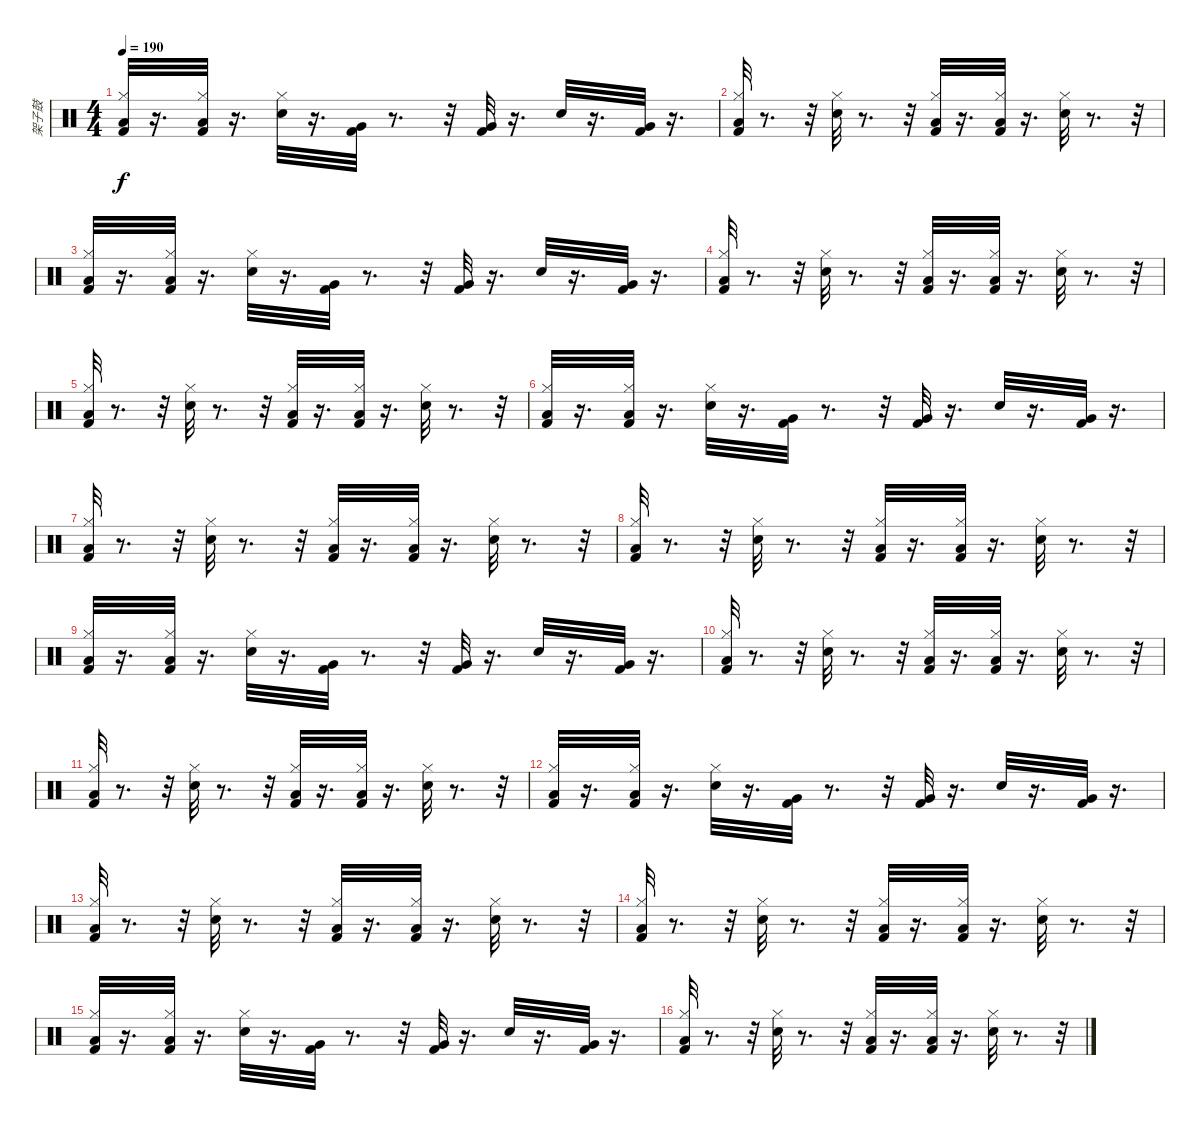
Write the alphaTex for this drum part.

\track ("架子鼓" "架子鼓") {instrument percussion}
\staff {score}
\articulation defaults
\ts (4 4)
\tempo 190
\clef neutral
\ks c
("Kick (hit) 2" "Hi-Hat (closed)" "Low Floor Tom (hit)").32{dy f} r.16{d} ("Kick (hit) 2" "Hi-Hat (closed)" "Low Floor Tom (hit)").32 r.16{d} ("Hi-Hat (closed)" "Electric Snare (hit)").32 r.16{d} ("Kick (hit) 2" "Very Low Tom (hit)").32 r.8{d} r.32 ("Kick (hit) 2" "Very Low Tom (hit)").32 r.16{d} "Snare (hit) 2".32 r.16{d} ("Kick (hit) 2" "Very Low Tom (hit)").32 r.16{d} |
("Kick (hit) 2" "Hi-Hat (closed)" "Low Floor Tom (hit)").32 r.8{d} r.32 ("Hi-Hat (closed)" "Electric Snare (hit)").32 r.8{d} r.32 ("Kick (hit) 2" "Hi-Hat (closed)" "Low Floor Tom (hit)").32 r.16{d} ("Kick (hit) 2" "Hi-Hat (closed)" "Low Floor Tom (hit)").32 r.16{d} ("Hi-Hat (closed)" "Electric Snare (hit)").32 r.8{d} r.32 |
("Kick (hit) 2" "Hi-Hat (closed)" "Low Floor Tom (hit)").32 r.16{d} ("Kick (hit) 2" "Hi-Hat (closed)" "Low Floor Tom (hit)").32 r.16{d} ("Hi-Hat (closed)" "Electric Snare (hit)").32 r.16{d} ("Kick (hit) 2" "Very Low Tom (hit)").32 r.8{d} r.32 ("Kick (hit) 2" "Very Low Tom (hit)").32 r.16{d} "Snare (hit) 2".32 r.16{d} ("Kick (hit) 2" "Very Low Tom (hit)").32 r.16{d} |
("Kick (hit) 2" "Hi-Hat (closed)" "Low Floor Tom (hit)").32 r.8{d} r.32 ("Hi-Hat (closed)" "Electric Snare (hit)").32 r.8{d} r.32 ("Kick (hit) 2" "Hi-Hat (closed)" "Low Floor Tom (hit)").32 r.16{d} ("Kick (hit) 2" "Hi-Hat (closed)" "Low Floor Tom (hit)").32 r.16{d} ("Hi-Hat (closed)" "Electric Snare (hit)").32 r.8{d} r.32 |
("Kick (hit) 2" "Hi-Hat (closed)" "Low Floor Tom (hit)").32 r.8{d} r.32 ("Hi-Hat (closed)" "Electric Snare (hit)").32 r.8{d} r.32 ("Kick (hit) 2" "Hi-Hat (closed)" "Low Floor Tom (hit)").32 r.16{d} ("Kick (hit) 2" "Hi-Hat (closed)" "Low Floor Tom (hit)").32 r.16{d} ("Hi-Hat (closed)" "Electric Snare (hit)").32 r.8{d} r.32 |
("Kick (hit) 2" "Hi-Hat (closed)" "Low Floor Tom (hit)").32 r.16{d} ("Kick (hit) 2" "Hi-Hat (closed)" "Low Floor Tom (hit)").32 r.16{d} ("Hi-Hat (closed)" "Electric Snare (hit)").32 r.16{d} ("Kick (hit) 2" "Very Low Tom (hit)").32 r.8{d} r.32 ("Kick (hit) 2" "Very Low Tom (hit)").32 r.16{d} "Snare (hit) 2".32 r.16{d} ("Kick (hit) 2" "Very Low Tom (hit)").32 r.16{d} |
("Kick (hit) 2" "Hi-Hat (closed)" "Low Floor Tom (hit)").32 r.8{d} r.32 ("Hi-Hat (closed)" "Electric Snare (hit)").32 r.8{d} r.32 ("Kick (hit) 2" "Hi-Hat (closed)" "Low Floor Tom (hit)").32 r.16{d} ("Kick (hit) 2" "Hi-Hat (closed)" "Low Floor Tom (hit)").32 r.16{d} ("Hi-Hat (closed)" "Electric Snare (hit)").32 r.8{d} r.32 |
("Kick (hit) 2" "Hi-Hat (closed)" "Low Floor Tom (hit)").32 r.8{d} r.32 ("Hi-Hat (closed)" "Electric Snare (hit)").32 r.8{d} r.32 ("Kick (hit) 2" "Hi-Hat (closed)" "Low Floor Tom (hit)").32 r.16{d} ("Kick (hit) 2" "Hi-Hat (closed)" "Low Floor Tom (hit)").32 r.16{d} ("Hi-Hat (closed)" "Electric Snare (hit)").32 r.8{d} r.32 |
("Kick (hit) 2" "Hi-Hat (closed)" "Low Floor Tom (hit)").32 r.16{d} ("Kick (hit) 2" "Hi-Hat (closed)" "Low Floor Tom (hit)").32 r.16{d} ("Hi-Hat (closed)" "Electric Snare (hit)").32 r.16{d} ("Kick (hit) 2" "Very Low Tom (hit)").32 r.8{d} r.32 ("Kick (hit) 2" "Very Low Tom (hit)").32 r.16{d} "Snare (hit) 2".32 r.16{d} ("Kick (hit) 2" "Very Low Tom (hit)").32 r.16{d} |
("Kick (hit) 2" "Hi-Hat (closed)" "Low Floor Tom (hit)").32 r.8{d} r.32 ("Hi-Hat (closed)" "Electric Snare (hit)").32 r.8{d} r.32 ("Kick (hit) 2" "Hi-Hat (closed)" "Low Floor Tom (hit)").32 r.16{d} ("Kick (hit) 2" "Hi-Hat (closed)" "Low Floor Tom (hit)").32 r.16{d} ("Hi-Hat (closed)" "Electric Snare (hit)").32 r.8{d} r.32 |
("Kick (hit) 2" "Hi-Hat (closed)" "Low Floor Tom (hit)").32 r.8{d} r.32 ("Hi-Hat (closed)" "Electric Snare (hit)").32 r.8{d} r.32 ("Kick (hit) 2" "Hi-Hat (closed)" "Low Floor Tom (hit)").32 r.16{d} ("Kick (hit) 2" "Hi-Hat (closed)" "Low Floor Tom (hit)").32 r.16{d} ("Hi-Hat (closed)" "Electric Snare (hit)").32 r.8{d} r.32 |
("Kick (hit) 2" "Hi-Hat (closed)" "Low Floor Tom (hit)").32 r.16{d} ("Kick (hit) 2" "Hi-Hat (closed)" "Low Floor Tom (hit)").32 r.16{d} ("Hi-Hat (closed)" "Electric Snare (hit)").32 r.16{d} ("Kick (hit) 2" "Very Low Tom (hit)").32 r.8{d} r.32 ("Kick (hit) 2" "Very Low Tom (hit)").32 r.16{d} "Snare (hit) 2".32 r.16{d} ("Kick (hit) 2" "Very Low Tom (hit)").32 r.16{d} |
("Kick (hit) 2" "Hi-Hat (closed)" "Low Floor Tom (hit)").32 r.8{d} r.32 ("Hi-Hat (closed)" "Electric Snare (hit)").32 r.8{d} r.32 ("Kick (hit) 2" "Hi-Hat (closed)" "Low Floor Tom (hit)").32 r.16{d} ("Kick (hit) 2" "Hi-Hat (closed)" "Low Floor Tom (hit)").32 r.16{d} ("Hi-Hat (closed)" "Electric Snare (hit)").32 r.8{d} r.32 |
("Kick (hit) 2" "Hi-Hat (closed)" "Low Floor Tom (hit)").32 r.8{d} r.32 ("Hi-Hat (closed)" "Electric Snare (hit)").32 r.8{d} r.32 ("Kick (hit) 2" "Hi-Hat (closed)" "Low Floor Tom (hit)").32 r.16{d} ("Kick (hit) 2" "Hi-Hat (closed)" "Low Floor Tom (hit)").32 r.16{d} ("Hi-Hat (closed)" "Electric Snare (hit)").32 r.8{d} r.32 |
("Kick (hit) 2" "Hi-Hat (closed)" "Low Floor Tom (hit)").32 r.16{d} ("Kick (hit) 2" "Hi-Hat (closed)" "Low Floor Tom (hit)").32 r.16{d} ("Hi-Hat (closed)" "Electric Snare (hit)").32 r.16{d} ("Kick (hit) 2" "Very Low Tom (hit)").32 r.8{d} r.32 ("Kick (hit) 2" "Very Low Tom (hit)").32 r.16{d} "Snare (hit) 2".32 r.16{d} ("Kick (hit) 2" "Very Low Tom (hit)").32 r.16{d} |
("Kick (hit) 2" "Hi-Hat (closed)" "Low Floor Tom (hit)").32 r.8{d} r.32 ("Hi-Hat (closed)" "Electric Snare (hit)").32 r.8{d} r.32 ("Kick (hit) 2" "Hi-Hat (closed)" "Low Floor Tom (hit)").32 r.16{d} ("Kick (hit) 2" "Hi-Hat (closed)" "Low Floor Tom (hit)").32 r.16{d} ("Hi-Hat (closed)" "Electric Snare (hit)").32 r.8{d} r.32
